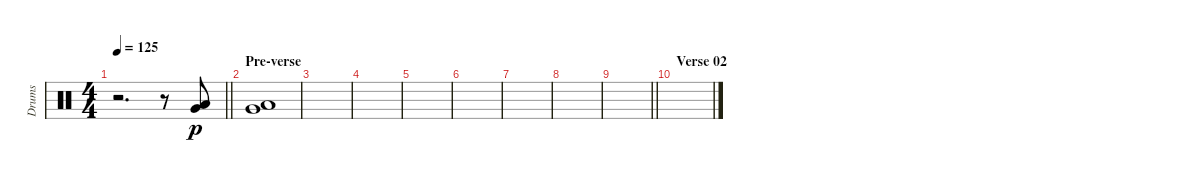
\track ("Drums" "Drums") {instrument percussion}
\staff {score}
\articulation defaults
\ts (4 4)
\tempo 125
\clef neutral
\barLineRight lightlight
\ks c
r.2{d dy p} r.8 ("Very Low Tom (hit)" "Low Floor Tom (hit)").8 |
\section ("" "Pre-verse")
("Very Low Tom (hit)" "Low Floor Tom (hit)").1 |
|
|
|
|
|
|
\barLineRight lightlight
|
\section ("" "Verse 02")
